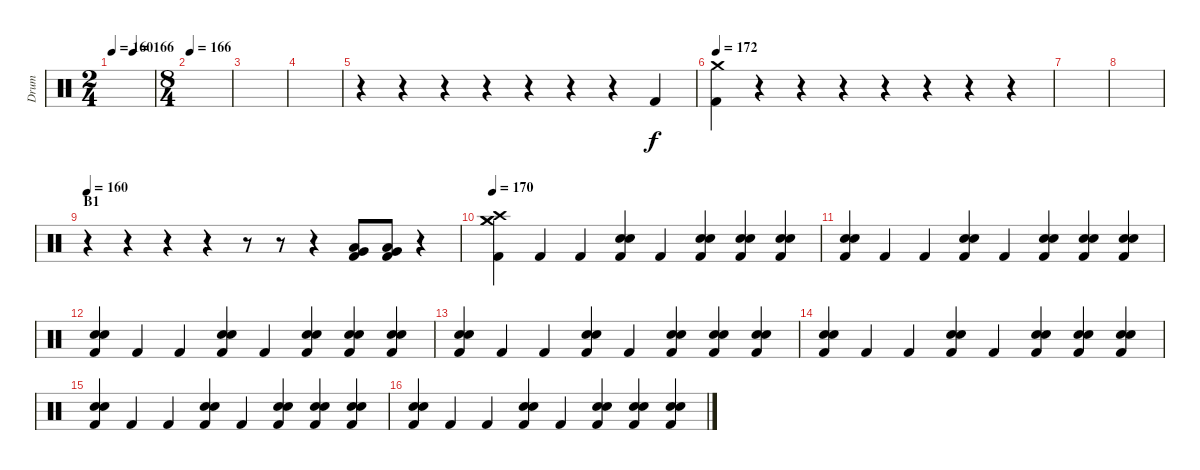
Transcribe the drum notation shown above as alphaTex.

\track ("Drum" "Drum") {instrument percussion}
\staff {score}
\articulation defaults
\ts (2 4)
\tempo 160
\tempo 120
\tempo (166 0.5)
\tempo 160
\clef neutral
\ks c
|
\ts (8 4)
\tempo 166
|
|
|
r.4 r.4 r.4 r.4 r.4 r.4 r.4 "Kick (hit) 2".4 |
\tempo 172
("Kick (hit) 2" "Crash medium (hit)").4 r.4 r.4 r.4 r.4 r.4 r.4 r.4 |
|
|
\section ("" "B1")
\tempo 160
r.4 r.4 r.4 r.4 r.8 r.8 r.4 ("Kick (hit) 2" "Low Floor Tom (hit)" "Very Low Tom (hit)").8 ("Kick (hit) 2" "Low Floor Tom (hit)" "Very Low Tom (hit)").8 r.4 |
\tempo 170
("Kick (hit) 2" "Crash high (hit)" "Crash medium (hit)" "Crash medium (hit)").4 "Kick (hit) 2".4 "Kick (hit) 2".4 ("Kick (hit) 2" "Electric Snare (hit)" "Electric Snare (hit)").4 "Kick (hit) 2".4 ("Kick (hit) 2" "Electric Snare (hit)" "Electric Snare (hit)").4 ("Kick (hit) 2" "Electric Snare (hit)" "Electric Snare (hit)").4 ("Kick (hit) 2" "Electric Snare (hit)" "Electric Snare (hit)").4 |
("Kick (hit) 2" "Electric Snare (hit)" "Electric Snare (hit)").4 "Kick (hit) 2".4 "Kick (hit) 2".4 ("Kick (hit) 2" "Electric Snare (hit)" "Electric Snare (hit)").4 "Kick (hit) 2".4 ("Kick (hit) 2" "Electric Snare (hit)" "Electric Snare (hit)").4 ("Kick (hit) 2" "Electric Snare (hit)" "Electric Snare (hit)").4 ("Kick (hit) 2" "Electric Snare (hit)" "Electric Snare (hit)").4 |
("Kick (hit) 2" "Electric Snare (hit)" "Electric Snare (hit)").4 "Kick (hit) 2".4 "Kick (hit) 2".4 ("Kick (hit) 2" "Electric Snare (hit)" "Electric Snare (hit)").4 "Kick (hit) 2".4 ("Kick (hit) 2" "Electric Snare (hit)" "Electric Snare (hit)").4 ("Kick (hit) 2" "Electric Snare (hit)" "Electric Snare (hit)").4 ("Kick (hit) 2" "Electric Snare (hit)" "Electric Snare (hit)").4 |
("Kick (hit) 2" "Electric Snare (hit)" "Electric Snare (hit)").4 "Kick (hit) 2".4 "Kick (hit) 2".4 ("Kick (hit) 2" "Electric Snare (hit)" "Electric Snare (hit)").4 "Kick (hit) 2".4 ("Kick (hit) 2" "Electric Snare (hit)" "Electric Snare (hit)").4 ("Kick (hit) 2" "Electric Snare (hit)" "Electric Snare (hit)").4 ("Kick (hit) 2" "Electric Snare (hit)" "Electric Snare (hit)").4 |
("Kick (hit) 2" "Electric Snare (hit)" "Electric Snare (hit)").4 "Kick (hit) 2".4 "Kick (hit) 2".4 ("Kick (hit) 2" "Electric Snare (hit)" "Electric Snare (hit)").4 "Kick (hit) 2".4 ("Kick (hit) 2" "Electric Snare (hit)" "Electric Snare (hit)").4 ("Kick (hit) 2" "Electric Snare (hit)" "Electric Snare (hit)").4 ("Kick (hit) 2" "Electric Snare (hit)" "Electric Snare (hit)").4 |
("Kick (hit) 2" "Electric Snare (hit)" "Electric Snare (hit)").4 "Kick (hit) 2".4 "Kick (hit) 2".4 ("Kick (hit) 2" "Electric Snare (hit)" "Electric Snare (hit)").4 "Kick (hit) 2".4 ("Kick (hit) 2" "Electric Snare (hit)" "Electric Snare (hit)").4 ("Kick (hit) 2" "Electric Snare (hit)" "Electric Snare (hit)").4 ("Kick (hit) 2" "Electric Snare (hit)" "Electric Snare (hit)").4 |
("Kick (hit) 2" "Electric Snare (hit)" "Electric Snare (hit)").4 "Kick (hit) 2".4 "Kick (hit) 2".4 ("Kick (hit) 2" "Electric Snare (hit)" "Electric Snare (hit)").4 "Kick (hit) 2".4 ("Kick (hit) 2" "Electric Snare (hit)" "Electric Snare (hit)").4 ("Kick (hit) 2" "Electric Snare (hit)" "Electric Snare (hit)").4 ("Kick (hit) 2" "Electric Snare (hit)" "Electric Snare (hit)").4
